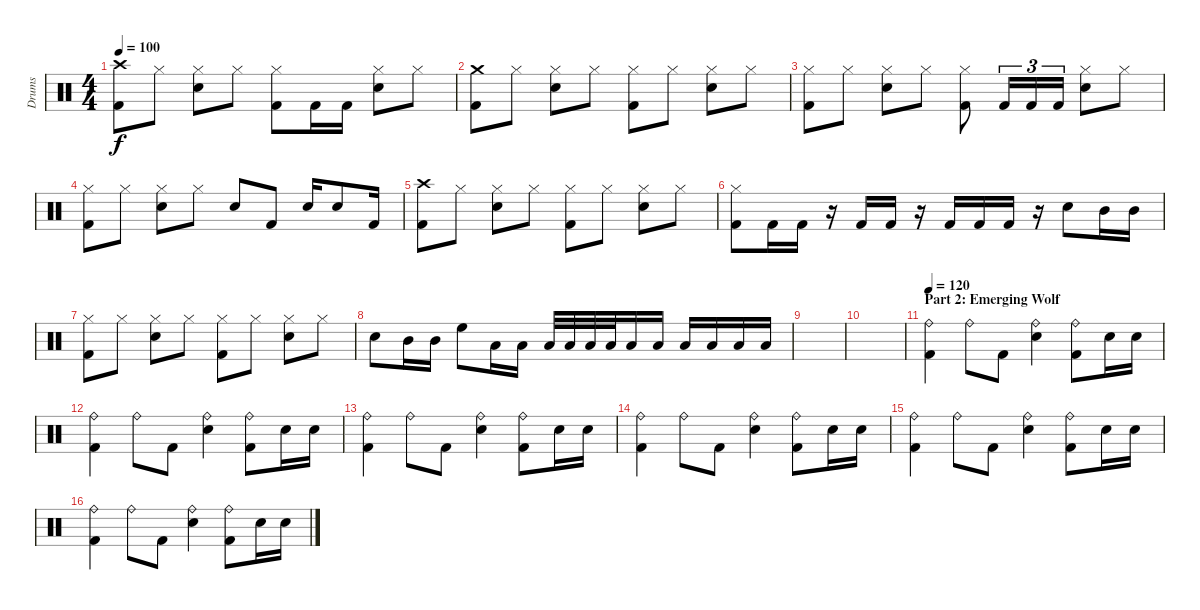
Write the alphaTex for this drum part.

\track ("Drums" "Drums") {instrument percussion}
\staff {score}
\articulation defaults
\ts (4 4)
\tempo 100
\clef neutral
\ks c
("Crash high (hit)" "Kick (hit) 2").8{dy f} "Hi-Hat (closed)".8 ("Hi-Hat (closed)" "Snare (hit) 2").8 "Hi-Hat (closed)".8 ("Hi-Hat (closed)" "Kick (hit) 2").8 "Kick (hit) 2".16 "Kick (hit) 2".16 ("Hi-Hat (closed)" "Snare (hit) 2").8 "Hi-Hat (closed)".8 |
("Crash medium (hit)" "Kick (hit) 2").8 "Hi-Hat (closed)".8 ("Hi-Hat (closed)" "Snare (hit) 2").8 "Hi-Hat (closed)".8 ("Hi-Hat (closed)" "Kick (hit) 2").8 "Hi-Hat (closed)".8 ("Hi-Hat (closed)" "Snare (hit) 2").8 "Hi-Hat (closed)".8 |
("Hi-Hat (closed)" "Kick (hit) 2").8 "Hi-Hat (closed)".8 ("Hi-Hat (closed)" "Snare (hit) 2").8 "Hi-Hat (closed)".8 ("Hi-Hat (closed)" "Kick (hit) 2").8 "Kick (hit) 2".16{tu (3 2)} "Kick (hit) 2".16{tu (3 2)} "Kick (hit) 2".16{tu (3 2)} ("Hi-Hat (closed)" "Snare (hit) 2").8 "Hi-Hat (closed)".8 |
("Hi-Hat (closed)" "Kick (hit) 2").8 "Hi-Hat (closed)".8 ("Hi-Hat (closed)" "Snare (hit) 2").8 "Hi-Hat (closed)".8 "Snare (hit) 2".8 "Kick (hit) 2".8 "Snare (hit) 2".16 "Snare (hit) 2".8 "Kick (hit) 2".16 |
("Crash high (hit)" "Kick (hit) 2").8 "Hi-Hat (closed)".8 ("Hi-Hat (closed)" "Snare (hit) 2").8 "Hi-Hat (closed)".8 ("Hi-Hat (closed)" "Kick (hit) 2").8 "Hi-Hat (closed)".8 ("Hi-Hat (closed)" "Snare (hit) 2").8 "Hi-Hat (closed)".8 |
("Hi-Hat (closed)" "Kick (hit) 2").8 "Kick (hit) 2".16 "Kick (hit) 2".16 r.16 "Kick (hit) 2".16 "Kick (hit) 2".16 r.16 "Kick (hit) 2".16 "Kick (hit) 2".16 "Kick (hit) 2".16 r.16 "Snare (hit) 2".8 "Mid Tom (hit)".16 "Mid Tom (hit)".16 |
("Hi-Hat (closed)" "Kick (hit) 2").8 "Hi-Hat (closed)".8 ("Hi-Hat (closed)" "Snare (hit) 2").8 "Hi-Hat (closed)".8 ("Hi-Hat (closed)" "Kick (hit) 2").8 "Hi-Hat (closed)".8 ("Hi-Hat (closed)" "Snare (hit) 2").8 "Hi-Hat (closed)".8 |
"Snare (hit) 2".8 "Mid Tom (hit)".16 "Mid Tom (hit)".16 "High Floor Tom (hit)".8 "Low Tom (hit)".16 "Low Tom (hit)".16 "Low Tom (hit)".32 "Low Tom (hit)".32 "Low Tom (hit)".32 "Low Tom (hit)".32 "Low Floor Tom (hit)".16 "Low Floor Tom (hit)".16 "Low Floor Tom (hit)".16 "Low Floor Tom (hit)".16 "Low Floor Tom (hit)".16 "Low Floor Tom (hit)".16 |
|
|
\section ("" "Part 2: Emerging Wolf")
\tempo 120
("Ride (bell)" "Kick (hit) 2").4 "Ride (bell)".8 "Kick (hit) 2".8 ("Ride (bell)" "Snare (hit) 2").4 ("Ride (bell)" "Kick (hit) 2").8 "Snare (hit) 2".16 "Snare (hit) 2".16 |
("Ride (bell)" "Kick (hit) 2").4 "Ride (bell)".8 "Kick (hit) 2".8 ("Ride (bell)" "Snare (hit) 2").4 ("Ride (bell)" "Kick (hit) 2").8 "Snare (hit) 2".16 "Snare (hit) 2".16 |
("Ride (bell)" "Kick (hit) 2").4 "Ride (bell)".8 "Kick (hit) 2".8 ("Ride (bell)" "Snare (hit) 2").4 ("Ride (bell)" "Kick (hit) 2").8 "Snare (hit) 2".16 "Snare (hit) 2".16 |
("Ride (bell)" "Kick (hit) 2").4 "Ride (bell)".8 "Kick (hit) 2".8 ("Ride (bell)" "Snare (hit) 2").4 ("Ride (bell)" "Kick (hit) 2").8 "Snare (hit) 2".16 "Snare (hit) 2".16 |
("Ride (bell)" "Kick (hit) 2").4 "Ride (bell)".8 "Kick (hit) 2".8 ("Ride (bell)" "Snare (hit) 2").4 ("Ride (bell)" "Kick (hit) 2").8 "Snare (hit) 2".16 "Snare (hit) 2".16 |
("Ride (bell)" "Kick (hit) 2").4 "Ride (bell)".8 "Kick (hit) 2".8 ("Ride (bell)" "Snare (hit) 2").4 ("Ride (bell)" "Kick (hit) 2").8 "Snare (hit) 2".16 "Snare (hit) 2".16
